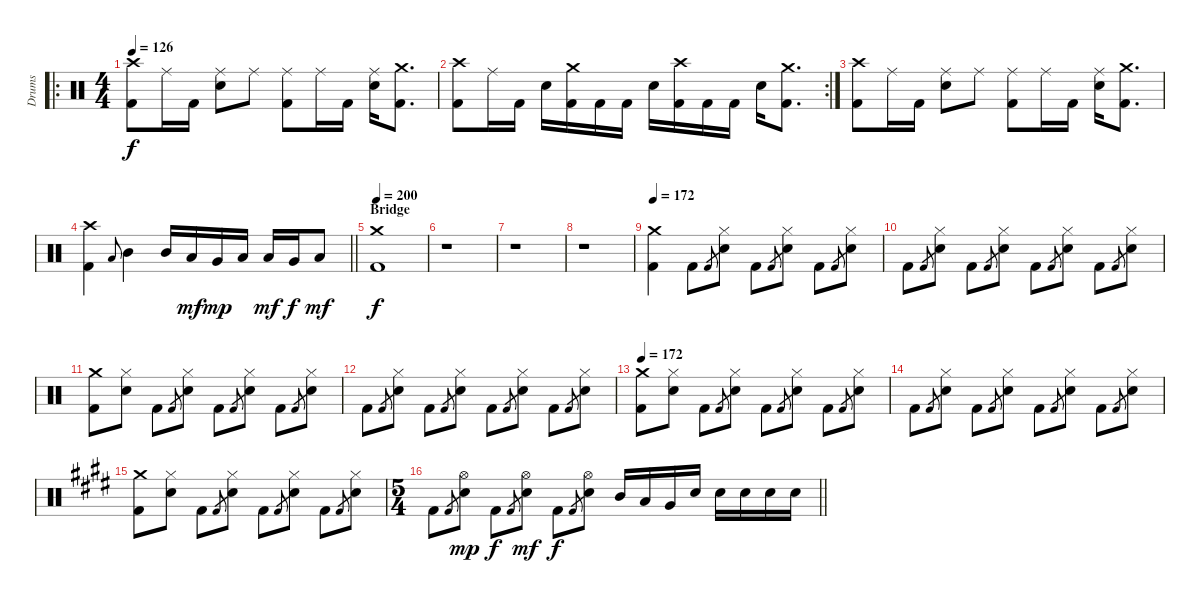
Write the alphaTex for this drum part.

\track ("Drums" "Drums") {instrument percussion}
\staff {score}
\articulation defaults
\ro
\ts (4 4)
\tempo 126
\clef neutral
\ks c
("Crash high (hit)" "Kick (hit) 2").8{dy f} "Ride (middle)".16 "Kick (hit) 2".16 ("Ride (middle)" "Snare (hit) 2").8 "Ride (middle)".8 ("Ride (middle)" "Kick (hit) 2").8 "Ride (middle)".16 "Kick (hit) 2".16 ("Ride (middle)" "Snare (hit) 2").16 ("Crash medium (hit)" "Kick (hit) 2").8{d} |
\rc 2
("Crash high (hit)" "Kick (hit) 2").8 "Ride (middle)".16 "Kick (hit) 2".16 "Snare (hit) 2".16 ("Crash medium (hit)" "Kick (hit) 2").16 "Kick (hit) 2".16 "Kick (hit) 2".16 "Snare (hit) 2".16 ("Crash high (hit)" "Kick (hit) 2").16 "Kick (hit) 2".16 "Kick (hit) 2".16 "Snare (hit) 2".16 ("Crash medium (hit)" "Kick (hit) 2").8{d} |
("Crash high (hit)" "Kick (hit) 2").8 "Ride (middle)".16 "Kick (hit) 2".16 ("Ride (middle)" "Snare (hit) 2").8 "Ride (middle)".8 ("Ride (middle)" "Kick (hit) 2").8 "Ride (middle)".16 "Kick (hit) 2".16 ("Ride (middle)" "Snare (hit) 2").16 ("Crash medium (hit)" "Kick (hit) 2").8{d} |
\barLineRight lightlight
("Crash high (hit)" "Kick (hit) 2").4 "Low Tom (hit)".8{gr onbeat} "Mid Tom (hit)".4 "Mid Tom (hit)".16 "Low Tom (hit)".16{dy mf} "Very Low Tom (hit)".16{dy mp} "Low Floor Tom (hit)".16 "Low Tom (hit)".16{dy mf} "Very Low Tom (hit)".16{dy f} "Low Floor Tom (hit)".8{dy mf} |
\section ("" "Bridge")
\tempo 200
("Crash medium (hit)" "Kick (hit) 2").1{dy f} |
r.1 |
r.1 |
r.1 |
\tempo 172
("Crash medium (hit)" "Kick (hit) 2").4 "Kick (hit) 2".8 "Kick (hit) 2".8{gr} ("Hi-Hat (closed)" "Snare (hit) 2").8 "Kick (hit) 2".8 "Kick (hit) 2".8{gr} ("Hi-Hat (closed)" "Snare (hit) 2").8 "Kick (hit) 2".8 "Kick (hit) 2".8{gr} ("Hi-Hat (closed)" "Snare (hit) 2").8 |
"Kick (hit) 2".8 "Kick (hit) 2".8{gr} ("Hi-Hat (closed)" "Snare (hit) 2").8 "Kick (hit) 2".8 "Kick (hit) 2".8{gr} ("Hi-Hat (closed)" "Snare (hit) 2").8 "Kick (hit) 2".8 "Kick (hit) 2".8{gr} ("Hi-Hat (closed)" "Snare (hit) 2").8 "Kick (hit) 2".8 "Kick (hit) 2".8{gr} ("Hi-Hat (closed)" "Snare (hit) 2").8 |
("Crash medium (hit)" "Kick (hit) 2").8 ("Hi-Hat (closed)" "Snare (hit) 2").8 "Kick (hit) 2".8 "Kick (hit) 2".8{gr} ("Hi-Hat (closed)" "Snare (hit) 2").8 "Kick (hit) 2".8 "Kick (hit) 2".8{gr} ("Hi-Hat (closed)" "Snare (hit) 2").8 "Kick (hit) 2".8 "Kick (hit) 2".8{gr} ("Hi-Hat (closed)" "Snare (hit) 2").8 |
"Kick (hit) 2".8 "Kick (hit) 2".8{gr} ("Hi-Hat (closed)" "Snare (hit) 2").8 "Kick (hit) 2".8 "Kick (hit) 2".8{gr} ("Hi-Hat (closed)" "Snare (hit) 2").8 "Kick (hit) 2".8 "Kick (hit) 2".8{gr} ("Hi-Hat (closed)" "Snare (hit) 2").8 "Kick (hit) 2".8 "Kick (hit) 2".8{gr} ("Hi-Hat (closed)" "Snare (hit) 2").8 |
\tempo 172
("Crash medium (hit)" "Kick (hit) 2").8 ("Hi-Hat (closed)" "Snare (hit) 2").8 "Kick (hit) 2".8 "Kick (hit) 2".8{gr} ("Hi-Hat (closed)" "Snare (hit) 2").8 "Kick (hit) 2".8 "Kick (hit) 2".8{gr} ("Hi-Hat (closed)" "Snare (hit) 2").8 "Kick (hit) 2".8 "Kick (hit) 2".8{gr} ("Hi-Hat (closed)" "Snare (hit) 2").8 |
"Kick (hit) 2".8 "Kick (hit) 2".8{gr} ("Hi-Hat (closed)" "Snare (hit) 2").8 "Kick (hit) 2".8 "Kick (hit) 2".8{gr} ("Hi-Hat (closed)" "Snare (hit) 2").8 "Kick (hit) 2".8 "Kick (hit) 2".8{gr} ("Hi-Hat (closed)" "Snare (hit) 2").8 "Kick (hit) 2".8 "Kick (hit) 2".8{gr} ("Hi-Hat (closed)" "Snare (hit) 2").8 |
\ks e
("Crash medium (hit)" "Kick (hit) 2").8 ("Hi-Hat (closed)" "Snare (hit) 2").8 "Kick (hit) 2".8 "Kick (hit) 2".8{gr} ("Hi-Hat (closed)" "Snare (hit) 2").8 "Kick (hit) 2".8 "Kick (hit) 2".8{gr} ("Hi-Hat (closed)" "Snare (hit) 2").8 "Kick (hit) 2".8 "Kick (hit) 2".8{gr} ("Hi-Hat (closed)" "Snare (hit) 2").8 |
\ts (5 4)
\barLineRight lightlight "Kick (hit) 2".8 "Kick (hit) 2".8{gr}
("Hi-Hat (open)" "Snare (hit) 2").8{dy mp} "Kick (hit) 2".8{dy f} "Kick (hit) 2".8{gr} ("Hi-Hat (open)" "Snare (hit) 2").8{dy mf} "Kick (hit) 2".8{dy f} "Kick (hit) 2".8{gr} ("Hi-Hat (open)" "Snare (hit) 2").8 "Mid Tom (hit)".16 "Low Tom (hit)".16 "Very Low Tom (hit)".16 "Snare (hit) 2".16 "Snare (hit) 2".16 "Snare (hit) 2".16 "Snare (hit) 2".16 "Snare (hit) 2".16
